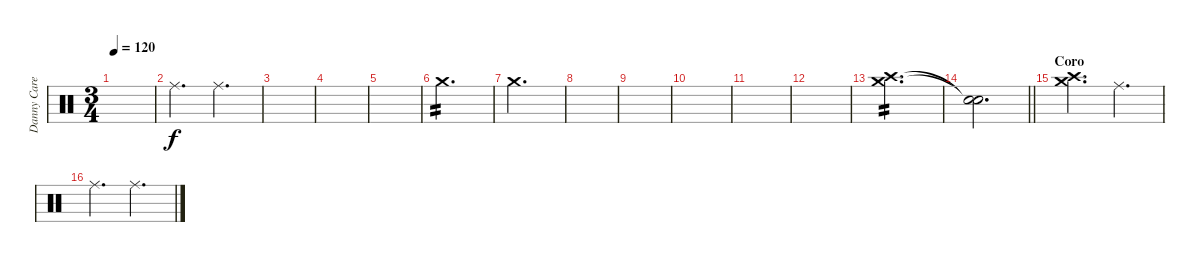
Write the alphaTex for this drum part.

\track ("Danny Carey" "Danny Care") {instrument percussion}
\staff {score}
\articulation defaults
\ts (3 4)
\tempo 120
\clef neutral
\ks c
|
"Ride (middle)".4{d} "Ride (middle)".4{d} |
|
|
|
"Crash medium (hit)".2{d tp 2 volume 3} |
"Crash medium (hit)".2{d} |
|
|
|
|
|
("Crash medium (hit)" "Crash high (hit)").2{d tp 2 volume 10} |
\barLineRight lightlight
("Snare (hit)"{t} "Snare (hit)"{t}).2{d} |
\section ("" "Coro")
("Crash medium (hit)" "Crash high (hit)").4{d} "Ride (middle)".4{d} |
"Ride (middle)".4{d} "Ride (middle)".4{d}
